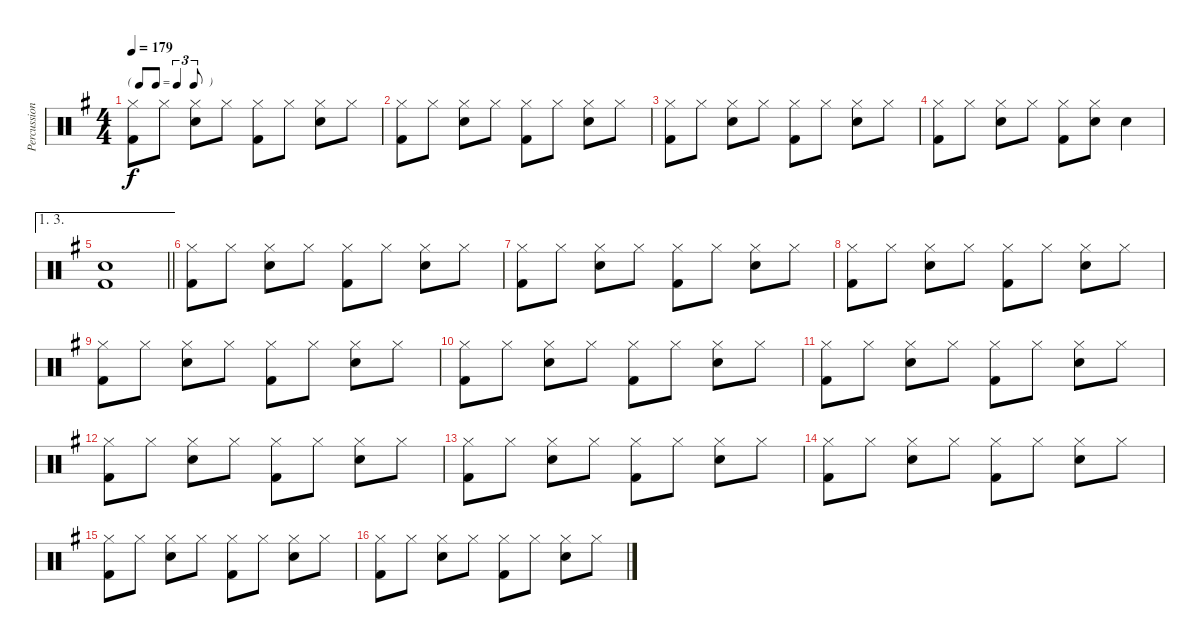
\track ("Percussion" "Percussion") {instrument percussion}
\staff {score}
\articulation defaults
\ts (4 4)
\tf triplet8th
\tempo 179
\clef neutral
\ks g
("Hi-Hat (closed)" "Kick (hit) 2").8{dy f} "Hi-Hat (closed)".8 ("Hi-Hat (closed)" "Snare (hit) 2").8 "Hi-Hat (closed)".8 ("Hi-Hat (closed)" "Kick (hit) 2").8 "Hi-Hat (closed)".8 ("Hi-Hat (closed)" "Snare (hit) 2").8 "Hi-Hat (closed)".8 |
("Hi-Hat (closed)" "Kick (hit) 2").8 "Hi-Hat (closed)".8 ("Hi-Hat (closed)" "Snare (hit) 2").8 "Hi-Hat (closed)".8 ("Hi-Hat (closed)" "Kick (hit) 2").8 "Hi-Hat (closed)".8 ("Hi-Hat (closed)" "Snare (hit) 2").8 "Hi-Hat (closed)".8 |
("Hi-Hat (closed)" "Kick (hit) 2").8 "Hi-Hat (closed)".8 ("Hi-Hat (closed)" "Snare (hit) 2").8 "Hi-Hat (closed)".8 ("Hi-Hat (closed)" "Kick (hit) 2").8 "Hi-Hat (closed)".8 ("Hi-Hat (closed)" "Snare (hit) 2").8 "Hi-Hat (closed)".8 |
("Hi-Hat (closed)" "Kick (hit) 2").8 "Hi-Hat (closed)".8 ("Hi-Hat (closed)" "Snare (hit) 2").8 "Hi-Hat (closed)".8 ("Hi-Hat (closed)" "Kick (hit) 2").8 ("Hi-Hat (closed)" "Snare (hit) 2").8 "Snare (hit) 2".4 |
\ae (1 3)
\barLineRight lightlight
("Snare (hit) 2" "Kick (hit) 2").1 |
("Hi-Hat (closed)" "Kick (hit) 2").8 "Hi-Hat (closed)".8 ("Hi-Hat (closed)" "Snare (hit) 2").8 "Hi-Hat (closed)".8 ("Hi-Hat (closed)" "Kick (hit) 2").8 "Hi-Hat (closed)".8 ("Hi-Hat (closed)" "Snare (hit) 2").8 "Hi-Hat (closed)".8 |
("Hi-Hat (closed)" "Kick (hit) 2").8 "Hi-Hat (closed)".8 ("Hi-Hat (closed)" "Snare (hit) 2").8 "Hi-Hat (closed)".8 ("Hi-Hat (closed)" "Kick (hit) 2").8 "Hi-Hat (closed)".8 ("Hi-Hat (closed)" "Snare (hit) 2").8 "Hi-Hat (closed)".8 |
("Hi-Hat (closed)" "Kick (hit) 2").8 "Hi-Hat (closed)".8 ("Hi-Hat (closed)" "Snare (hit) 2").8 "Hi-Hat (closed)".8 ("Hi-Hat (closed)" "Kick (hit) 2").8 "Hi-Hat (closed)".8 ("Hi-Hat (closed)" "Snare (hit) 2").8 "Hi-Hat (closed)".8 |
("Hi-Hat (closed)" "Kick (hit) 2").8 "Hi-Hat (closed)".8 ("Hi-Hat (closed)" "Snare (hit) 2").8 "Hi-Hat (closed)".8 ("Hi-Hat (closed)" "Kick (hit) 2").8 "Hi-Hat (closed)".8 ("Hi-Hat (closed)" "Snare (hit) 2").8 "Hi-Hat (closed)".8 |
("Hi-Hat (closed)" "Kick (hit) 2").8 "Hi-Hat (closed)".8 ("Hi-Hat (closed)" "Snare (hit) 2").8 "Hi-Hat (closed)".8 ("Hi-Hat (closed)" "Kick (hit) 2").8 "Hi-Hat (closed)".8 ("Hi-Hat (closed)" "Snare (hit) 2").8 "Hi-Hat (closed)".8 |
("Hi-Hat (closed)" "Kick (hit) 2").8 "Hi-Hat (closed)".8 ("Hi-Hat (closed)" "Snare (hit) 2").8 "Hi-Hat (closed)".8 ("Hi-Hat (closed)" "Kick (hit) 2").8 "Hi-Hat (closed)".8 ("Hi-Hat (closed)" "Snare (hit) 2").8 "Hi-Hat (closed)".8 |
("Hi-Hat (closed)" "Kick (hit) 2").8 "Hi-Hat (closed)".8 ("Hi-Hat (closed)" "Snare (hit) 2").8 "Hi-Hat (closed)".8 ("Hi-Hat (closed)" "Kick (hit) 2").8 "Hi-Hat (closed)".8 ("Hi-Hat (closed)" "Snare (hit) 2").8 "Hi-Hat (closed)".8 |
("Hi-Hat (closed)" "Kick (hit) 2").8 "Hi-Hat (closed)".8 ("Hi-Hat (closed)" "Snare (hit) 2").8 "Hi-Hat (closed)".8 ("Hi-Hat (closed)" "Kick (hit) 2").8 "Hi-Hat (closed)".8 ("Hi-Hat (closed)" "Snare (hit) 2").8 "Hi-Hat (closed)".8 |
("Hi-Hat (closed)" "Kick (hit) 2").8 "Hi-Hat (closed)".8 ("Hi-Hat (closed)" "Snare (hit) 2").8 "Hi-Hat (closed)".8 ("Hi-Hat (closed)" "Kick (hit) 2").8 "Hi-Hat (closed)".8 ("Hi-Hat (closed)" "Snare (hit) 2").8 "Hi-Hat (closed)".8 |
("Hi-Hat (closed)" "Kick (hit) 2").8 "Hi-Hat (closed)".8 ("Hi-Hat (closed)" "Snare (hit) 2").8 "Hi-Hat (closed)".8 ("Hi-Hat (closed)" "Kick (hit) 2").8 "Hi-Hat (closed)".8 ("Hi-Hat (closed)" "Snare (hit) 2").8 "Hi-Hat (closed)".8 |
("Hi-Hat (closed)" "Kick (hit) 2").8 "Hi-Hat (closed)".8 ("Hi-Hat (closed)" "Snare (hit) 2").8 "Hi-Hat (closed)".8 ("Hi-Hat (closed)" "Kick (hit) 2").8 "Hi-Hat (closed)".8 ("Hi-Hat (closed)" "Snare (hit) 2").8 "Hi-Hat (closed)".8
